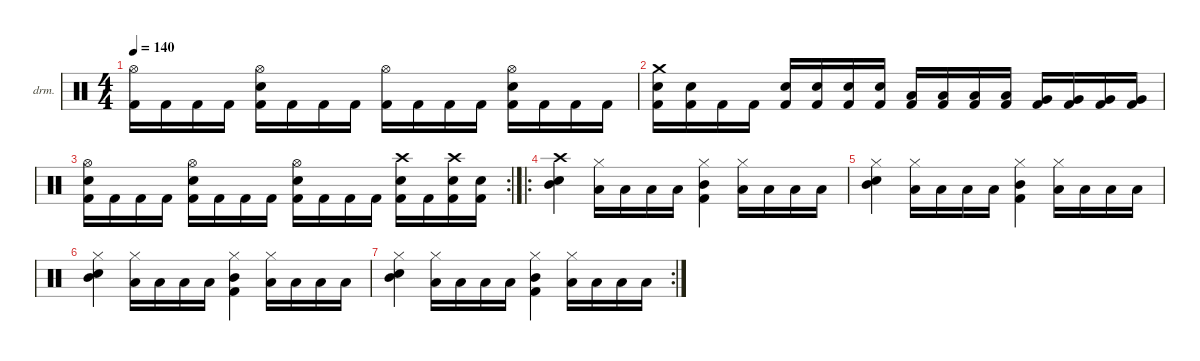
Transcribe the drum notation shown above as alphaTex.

\defaultSystemsLayout 4
\hideDynamics
\bracketExtendMode nobrackets
\firstSystemTrackNameOrientation horizontal
\otherSystemsTrackNameOrientation horizontal
\track ("Drumkit" "drm.") {instrument percussion}
\staff {score}
\articulation defaults
\ts (4 4)
\tempo 140
\clef neutral
\ks c
("Hi-Hat (open)" "Kick (hit) 2").16{dy ff} "Kick (hit) 2".16 "Kick (hit) 2".16 "Kick (hit) 2".16 ("Hi-Hat (open)" "Snare (hit) 2" "Kick (hit) 2").16 "Kick (hit) 2".16 "Kick (hit) 2".16 "Kick (hit) 2".16 ("Hi-Hat (open)" "Kick (hit) 2").16 "Kick (hit) 2".16 "Kick (hit) 2".16 "Kick (hit) 2".16 ("Hi-Hat (open)" "Snare (hit) 2" "Kick (hit) 2").16 "Kick (hit) 2".16 "Kick (hit) 2".16 "Kick (hit) 2".16 |
("Crash medium (hit)" "Snare (hit) 2" "Kick (hit) 2").16{dy mf} ("Snare (hit) 2" "Kick (hit) 2").16 "Kick (hit) 2".16 "Kick (hit) 2".16 ("Snare (hit) 2" "Kick (hit) 2").16 ("Snare (hit) 2" "Kick (hit) 2").16 ("Snare (hit) 2" "Kick (hit) 2").16 ("Snare (hit) 2" "Kick (hit) 2").16 ("Low Tom (hit)" "Kick (hit) 2").16 ("Low Tom (hit)" "Kick (hit) 2").16 ("Low Tom (hit)" "Kick (hit) 2").16 ("Low Tom (hit)" "Kick (hit) 2").16 ("Very Low Tom (hit)" "Kick (hit) 2").16 ("Very Low Tom (hit)" "Kick (hit) 2").16 ("Very Low Tom (hit)" "Kick (hit) 2").16 ("Very Low Tom (hit)" "Kick (hit) 2").16 |
\rc 2
("Hi-Hat (open)" "Snare (hit) 2" "Kick (hit) 2").16 "Kick (hit) 2".16 "Kick (hit) 2".16 "Kick (hit) 2".16 ("Hi-Hat (open)" "Snare (hit) 2" "Kick (hit) 2").16 "Kick (hit) 2".16 "Kick (hit) 2".16 "Kick (hit) 2".16 ("Hi-Hat (open)" "Snare (hit) 2" "Kick (hit) 2").16 "Kick (hit) 2".16 "Kick (hit) 2".16 "Kick (hit) 2".16 ("Crash high (hit)" "Snare (hit) 2" "Kick (hit) 2").16 "Kick (hit) 2".16 ("Crash high (hit)" "Snare (hit) 2" "Kick (hit) 2").16 ("Snare (hit) 2" "Kick (hit) 2").16 |
\ro
("Snare (hit) 2" "Mid Tom (hit)" "Crash high (hit)").4{dy fff} ("Low Tom (hit)" "Hi-Hat (closed)").16 "Low Tom (hit)".16 "Low Tom (hit)".16 "Low Tom (hit)".16 ("Mid Tom (hit)" "Kick (hit) 2" "Hi-Hat (closed)").4 ("Low Tom (hit)" "Hi-Hat (closed)").16 "Low Tom (hit)".16 "Low Tom (hit)".16 "Low Tom (hit)".16 |
("Snare (hit) 2" "Mid Tom (hit)" "Hi-Hat (closed)").4 ("Low Tom (hit)" "Hi-Hat (closed)").16 "Low Tom (hit)".16 "Low Tom (hit)".16 "Low Tom (hit)".16 ("Mid Tom (hit)" "Kick (hit) 2" "Hi-Hat (closed)").4 ("Low Tom (hit)" "Hi-Hat (closed)").16 "Low Tom (hit)".16 "Low Tom (hit)".16 "Low Tom (hit)".16 |
("Snare (hit) 2" "Mid Tom (hit)" "Hi-Hat (closed)").4 ("Low Tom (hit)" "Hi-Hat (closed)").16 "Low Tom (hit)".16 "Low Tom (hit)".16 "Low Tom (hit)".16 ("Mid Tom (hit)" "Kick (hit) 2" "Hi-Hat (closed)").4 ("Low Tom (hit)" "Hi-Hat (closed)").16 "Low Tom (hit)".16 "Low Tom (hit)".16 "Low Tom (hit)".16 |
\rc 2
("Snare (hit) 2" "Mid Tom (hit)" "Hi-Hat (closed)").4 ("Low Tom (hit)" "Hi-Hat (closed)").16 "Low Tom (hit)".16 "Low Tom (hit)".16 "Low Tom (hit)".16 ("Mid Tom (hit)" "Kick (hit) 2" "Hi-Hat (closed)").4 ("Low Tom (hit)" "Hi-Hat (closed)").16 "Low Tom (hit)".16 "Low Tom (hit)".16 "Low Tom (hit)".16
